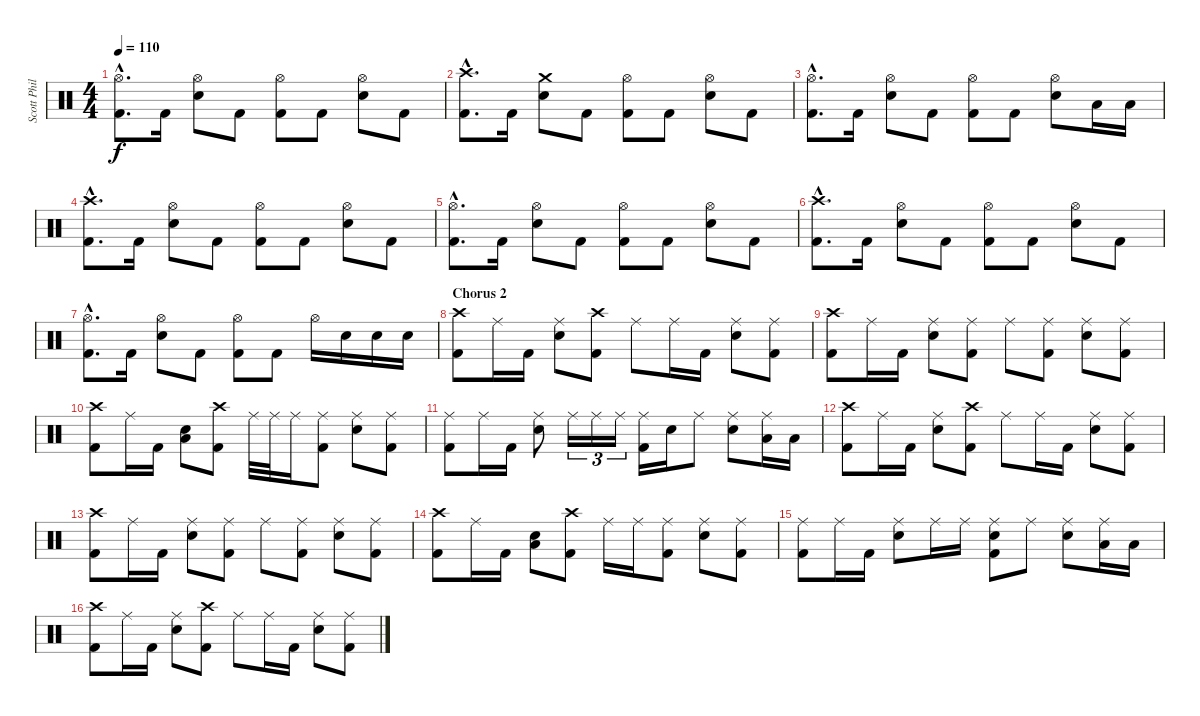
\track ("Scott Phillips" "Scott Phil") {instrument percussion}
\staff {score}
\articulation defaults
\ts (4 4)
\tempo 110
\clef neutral
\ks c
("Hi-Hat (open)"{hac} "Kick (hit) 2"{hac}).8{d dy f} "Kick (hit) 2".16 ("Hi-Hat (open)" "Electric Snare (hit)").8 "Kick (hit) 2".8 ("Hi-Hat (open)" "Kick (hit) 2").8 "Kick (hit) 2".8 ("Hi-Hat (open)" "Electric Snare (hit)").8 "Kick (hit) 2".8 |
("Crash high (hit)"{hac} "Kick (hit) 2"{hac}).8{d} "Kick (hit) 2".16 ("Crash medium (hit)" "Electric Snare (hit)").8 "Kick (hit) 2".8 ("Hi-Hat (open)" "Kick (hit) 2").8 "Kick (hit) 2".8 ("Hi-Hat (open)" "Electric Snare (hit)").8 "Kick (hit) 2".8 |
("Hi-Hat (open)"{hac} "Kick (hit) 2"{hac}).8{d} "Kick (hit) 2".16 ("Hi-Hat (open)" "Electric Snare (hit)").8 "Kick (hit) 2".8 ("Hi-Hat (open)" "Kick (hit) 2").8 "Kick (hit) 2".8 ("Hi-Hat (open)" "Electric Snare (hit)").8 "Low Tom (hit)".16 "Low Tom (hit)".16 |
("Crash high (hit)"{hac} "Kick (hit) 2"{hac}).8{d} "Kick (hit) 2".16 ("Hi-Hat (open)" "Electric Snare (hit)").8 "Kick (hit) 2".8 ("Hi-Hat (open)" "Kick (hit) 2").8 "Kick (hit) 2".8 ("Hi-Hat (open)" "Electric Snare (hit)").8 "Kick (hit) 2".8 |
("Hi-Hat (open)"{hac} "Kick (hit) 2"{hac}).8{d} "Kick (hit) 2".16 ("Hi-Hat (open)" "Electric Snare (hit)").8 "Kick (hit) 2".8 ("Hi-Hat (open)" "Kick (hit) 2").8 "Kick (hit) 2".8 ("Hi-Hat (open)" "Electric Snare (hit)").8 "Kick (hit) 2".8 |
("Crash high (hit)"{hac} "Kick (hit) 2"{hac}).8{d} "Kick (hit) 2".16 ("Hi-Hat (open)" "Electric Snare (hit)").8 "Kick (hit) 2".8 ("Hi-Hat (open)" "Kick (hit) 2").8 "Kick (hit) 2".8 ("Hi-Hat (open)" "Electric Snare (hit)").8 "Kick (hit) 2".8 |
("Hi-Hat (open)"{hac} "Kick (hit) 2"{hac}).8{d} "Kick (hit) 2".16 ("Hi-Hat (open)" "Electric Snare (hit)").8 "Kick (hit) 2".8 ("Hi-Hat (open)" "Kick (hit) 2").8 "Kick (hit) 2".8 "Hi-Hat (open)".16 "Electric Snare (hit)".16 "Electric Snare (hit)".16 "Electric Snare (hit)".16 |
\section ("" "Chorus 2")
("Crash high (hit)" "Kick (hit) 2").8 "Ride (middle)".16 "Kick (hit) 2".16 ("Ride (middle)" "Electric Snare (hit)").8 ("Crash high (hit)" "Kick (hit) 2").8 "Ride (middle)".8 "Ride (middle)".16 "Kick (hit) 2".16 ("Ride (middle)" "Electric Snare (hit)").8 ("Ride (middle)" "Kick (hit) 2").8 |
("Crash high (hit)" "Kick (hit) 2").8 "Ride (middle)".16 "Kick (hit) 2".16 ("Ride (middle)" "Electric Snare (hit)").8 ("Ride (middle)" "Kick (hit) 2").8 "Ride (middle)".8 ("Ride (middle)" "Kick (hit) 2").8 ("Ride (middle)" "Electric Snare (hit)").8 ("Ride (middle)" "Kick (hit) 2").8 |
("Crash high (hit)" "Kick (hit) 2").8 "Ride (middle)".16 "Kick (hit) 2".16 ("Low Tom (hit)" "Electric Snare (hit)").8 ("Crash high (hit)" "Kick (hit) 2").8 "Ride (middle)".32 "Ride (middle)".32 "Ride (middle)".16 ("Ride (middle)" "Kick (hit) 2").8 ("Ride (middle)" "Electric Snare (hit)").8 ("Ride (middle)" "Kick (hit) 2").8 |
("Ride (middle)" "Kick (hit) 2").8 "Ride (middle)".16 "Kick (hit) 2".16 ("Ride (middle)" "Electric Snare (hit)").8 "Ride (middle)".16{tu (3 2)} "Ride (middle)".16{tu (3 2)} "Ride (middle)".16{tu (3 2)} ("Ride (middle)" "Kick (hit) 2").16 "Electric Snare (hit)".16 "Ride (middle)".8 ("Ride (middle)" "Electric Snare (hit)").8 ("Ride (middle)" "Low Tom (hit)").16 "Low Tom (hit)".16 |
("Crash high (hit)" "Kick (hit) 2").8 "Ride (middle)".16 "Kick (hit) 2".16 ("Ride (middle)" "Electric Snare (hit)").8 ("Crash high (hit)" "Kick (hit) 2").8 "Ride (middle)".8 "Ride (middle)".16 "Kick (hit) 2".16 ("Ride (middle)" "Electric Snare (hit)").8 ("Ride (middle)" "Kick (hit) 2").8 |
("Crash high (hit)" "Kick (hit) 2").8 "Ride (middle)".16 "Kick (hit) 2".16 ("Ride (middle)" "Electric Snare (hit)").8 ("Ride (middle)" "Kick (hit) 2").8 "Ride (middle)".8 ("Ride (middle)" "Kick (hit) 2").8 ("Ride (middle)" "Electric Snare (hit)").8 ("Ride (middle)" "Kick (hit) 2").8 |
("Crash high (hit)" "Kick (hit) 2").8 "Ride (middle)".16 "Kick (hit) 2".16 ("Low Tom (hit)" "Electric Snare (hit)").8 ("Crash high (hit)" "Kick (hit) 2").8 "Ride (middle)".16 "Ride (middle)".16 ("Ride (middle)" "Kick (hit) 2").8 ("Ride (middle)" "Electric Snare (hit)").8 ("Ride (middle)" "Kick (hit) 2").8 |
("Ride (middle)" "Kick (hit) 2").8 "Ride (middle)".16 "Kick (hit) 2".16 ("Ride (middle)" "Electric Snare (hit)").8 "Ride (middle)".16 "Ride (middle)".16 ("Ride (middle)" "Electric Snare (hit)" "Kick (hit) 2").8 "Ride (middle)".8 ("Ride (middle)" "Electric Snare (hit)").8 ("Ride (middle)" "Low Tom (hit)").16 "Low Tom (hit)".16 |
("Crash high (hit)" "Kick (hit) 2").8 "Ride (middle)".16 "Kick (hit) 2".16 ("Ride (middle)" "Electric Snare (hit)").8 ("Crash high (hit)" "Kick (hit) 2").8 "Ride (middle)".8 "Ride (middle)".16 "Kick (hit) 2".16 ("Ride (middle)" "Electric Snare (hit)").8 ("Ride (middle)" "Kick (hit) 2").8
